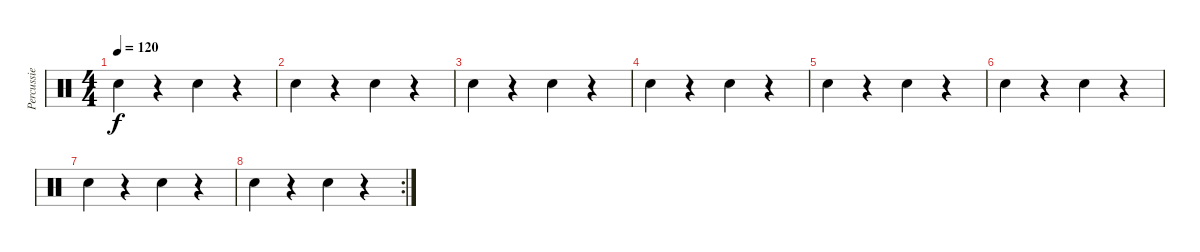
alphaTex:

\track ("Percussie" "Percussie") {instrument percussion}
\staff {score}
\articulation defaults
\ts (4 4)
\tempo 120
\clef neutral
\ks c "Metronome (bell)".4{dy f}
r.4 "Metronome (bell)".4 r.4 |
"Metronome (bell)".4 r.4 "Metronome (bell)".4 r.4 |
"Metronome (bell)".4 r.4 "Metronome (bell)".4 r.4 |
"Metronome (bell)".4 r.4 "Metronome (bell)".4 r.4 |
"Metronome (bell)".4 r.4 "Metronome (bell)".4 r.4 |
"Metronome (bell)".4 r.4 "Metronome (bell)".4 r.4 |
"Metronome (bell)".4 r.4 "Metronome (bell)".4 r.4 |
\rc 2 "Metronome (bell)".4
r.4 "Metronome (bell)".4 r.4
